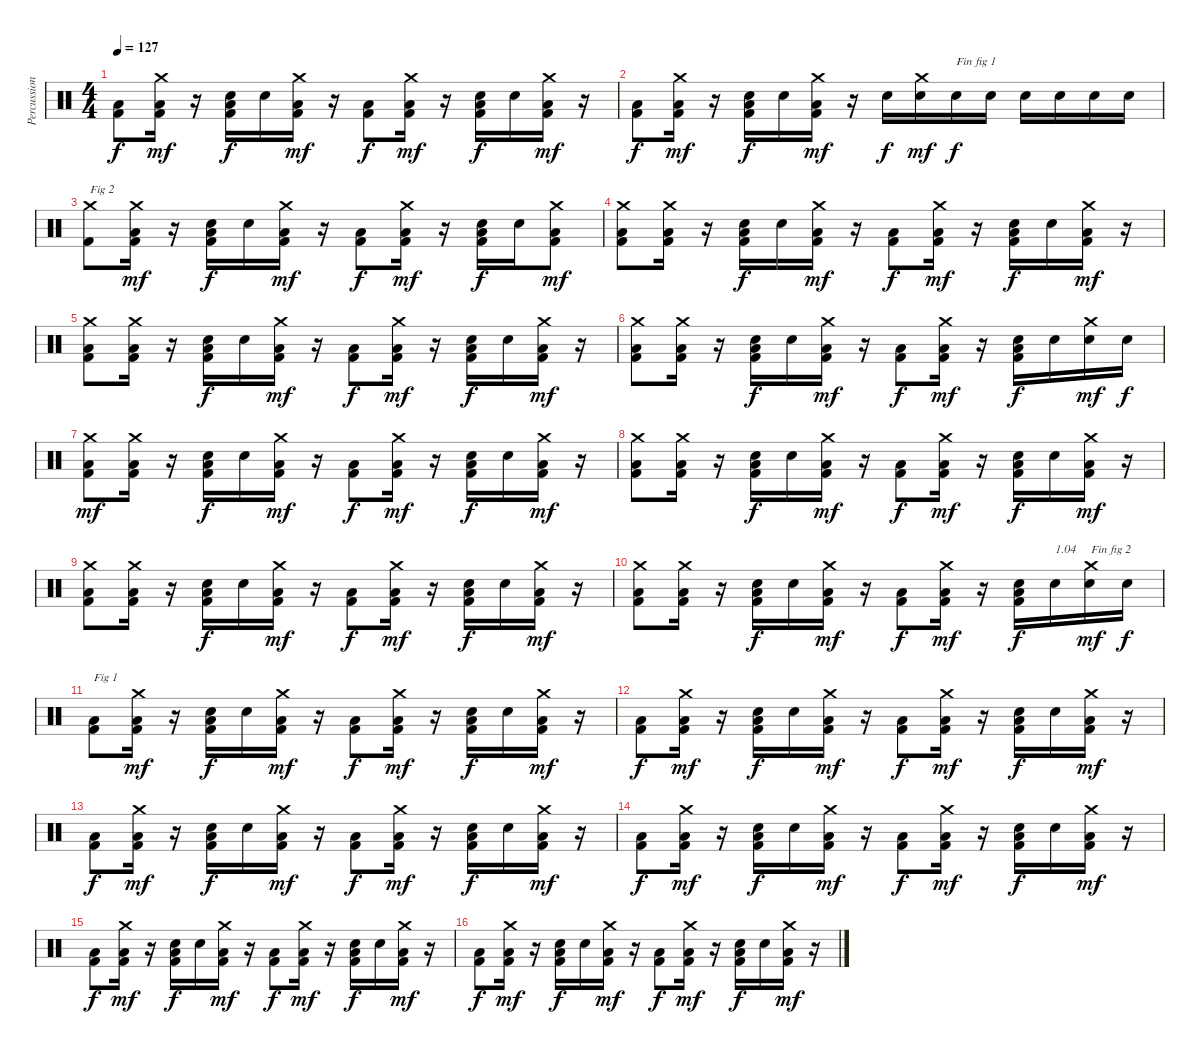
\track ("Percussions" "Percussion") {instrument percussion}
\staff {score}
\articulation defaults
\ts (4 4)
\tempo 127
\clef neutral
\ks c
("Low Floor Tom (hit)" "Kick (hit) 2").8{dy f} ("Low Floor Tom (hit)" "Kick (hit) 2" "Crash medium (hit)").16{dy mf} r.16 ("Low Floor Tom (hit)" "Kick (hit) 2" "Electric Snare (hit)").16{dy f} "Electric Snare (hit)".16 ("Low Floor Tom (hit)" "Kick (hit) 2" "Crash medium (hit)").16{dy mf} r.16 ("Low Floor Tom (hit)" "Kick (hit) 2").8{dy f} ("Low Floor Tom (hit)" "Kick (hit) 2" "Crash medium (hit)").16{dy mf} r.16 ("Low Floor Tom (hit)" "Kick (hit) 2" "Electric Snare (hit)").16{dy f} "Electric Snare (hit)".16 ("Low Floor Tom (hit)" "Kick (hit) 2" "Crash medium (hit)").16{dy mf} r.16 |
("Low Floor Tom (hit)" "Kick (hit) 2").8{dy f} ("Low Floor Tom (hit)" "Kick (hit) 2" "Crash medium (hit)").16{dy mf} r.16 ("Low Floor Tom (hit)" "Kick (hit) 2" "Electric Snare (hit)").16{dy f} "Electric Snare (hit)".16 ("Low Floor Tom (hit)" "Kick (hit) 2" "Crash medium (hit)").16{dy mf} r.16 "Electric Snare (hit)".16{dy f} ("Electric Snare (hit)" "Crash medium (hit)").16{dy mf} "Electric Snare (hit)".16{txt "Fin fig 1" dy f} "Electric Snare (hit)".16 "Electric Snare (hit)".16 "Electric Snare (hit)".16 "Electric Snare (hit)".16 "Electric Snare (hit)".16 |
("Kick (hit) 2" "Crash medium (hit)").8{txt "Fig 2"} ("Low Floor Tom (hit)" "Kick (hit) 2" "Crash medium (hit)").16{dy mf} r.16 ("Low Floor Tom (hit)" "Kick (hit) 2" "Electric Snare (hit)").16{dy f} "Electric Snare (hit)".16 ("Low Floor Tom (hit)" "Kick (hit) 2" "Crash medium (hit)").16{dy mf} r.16 ("Low Floor Tom (hit)" "Kick (hit) 2").8{dy f} ("Low Floor Tom (hit)" "Kick (hit) 2" "Crash medium (hit)").16{dy mf} r.16 ("Low Floor Tom (hit)" "Kick (hit) 2" "Electric Snare (hit)").16{dy f} "Electric Snare (hit)".16 ("Low Floor Tom (hit)" "Kick (hit) 2" "Crash medium (hit)").8{dy mf} |
("Low Floor Tom (hit)" "Kick (hit) 2" "Crash medium (hit)").8 ("Low Floor Tom (hit)" "Kick (hit) 2" "Crash medium (hit)").16 r.16 ("Low Floor Tom (hit)" "Kick (hit) 2" "Electric Snare (hit)").16{dy f} "Electric Snare (hit)".16 ("Low Floor Tom (hit)" "Kick (hit) 2" "Crash medium (hit)").16{dy mf} r.16 ("Low Floor Tom (hit)" "Kick (hit) 2").8{dy f} ("Low Floor Tom (hit)" "Kick (hit) 2" "Crash medium (hit)").16{dy mf} r.16 ("Low Floor Tom (hit)" "Kick (hit) 2" "Electric Snare (hit)").16{dy f} "Electric Snare (hit)".16 ("Low Floor Tom (hit)" "Kick (hit) 2" "Crash medium (hit)").16{dy mf} r.16 |
("Low Floor Tom (hit)" "Kick (hit) 2" "Crash medium (hit)").8 ("Low Floor Tom (hit)" "Kick (hit) 2" "Crash medium (hit)").16 r.16 ("Low Floor Tom (hit)" "Kick (hit) 2" "Electric Snare (hit)").16{dy f} "Electric Snare (hit)".16 ("Low Floor Tom (hit)" "Kick (hit) 2" "Crash medium (hit)").16{dy mf} r.16 ("Low Floor Tom (hit)" "Kick (hit) 2").8{dy f} ("Low Floor Tom (hit)" "Kick (hit) 2" "Crash medium (hit)").16{dy mf} r.16 ("Low Floor Tom (hit)" "Kick (hit) 2" "Electric Snare (hit)").16{dy f} "Electric Snare (hit)".16 ("Low Floor Tom (hit)" "Kick (hit) 2" "Crash medium (hit)").16{dy mf} r.16 |
("Low Floor Tom (hit)" "Kick (hit) 2" "Crash medium (hit)").8 ("Low Floor Tom (hit)" "Kick (hit) 2" "Crash medium (hit)").16 r.16 ("Low Floor Tom (hit)" "Kick (hit) 2" "Electric Snare (hit)").16{dy f} "Electric Snare (hit)".16 ("Low Floor Tom (hit)" "Kick (hit) 2" "Crash medium (hit)").16{dy mf} r.16 ("Low Floor Tom (hit)" "Kick (hit) 2").8{dy f} ("Low Floor Tom (hit)" "Kick (hit) 2" "Crash medium (hit)").16{dy mf} r.16 ("Low Floor Tom (hit)" "Kick (hit) 2" "Electric Snare (hit)").16{dy f} "Electric Snare (hit)".16 ("Electric Snare (hit)" "Crash medium (hit)").16{dy mf} "Electric Snare (hit)".16{dy f} |
("Low Floor Tom (hit)" "Kick (hit) 2" "Crash medium (hit)").8{dy mf} ("Low Floor Tom (hit)" "Kick (hit) 2" "Crash medium (hit)").16 r.16 ("Low Floor Tom (hit)" "Kick (hit) 2" "Electric Snare (hit)").16{dy f} "Electric Snare (hit)".16 ("Low Floor Tom (hit)" "Kick (hit) 2" "Crash medium (hit)").16{dy mf} r.16 ("Low Floor Tom (hit)" "Kick (hit) 2").8{dy f} ("Low Floor Tom (hit)" "Kick (hit) 2" "Crash medium (hit)").16{dy mf} r.16 ("Low Floor Tom (hit)" "Kick (hit) 2" "Electric Snare (hit)").16{dy f} "Electric Snare (hit)".16 ("Low Floor Tom (hit)" "Kick (hit) 2" "Crash medium (hit)").16{dy mf} r.16 |
("Low Floor Tom (hit)" "Kick (hit) 2" "Crash medium (hit)").8 ("Low Floor Tom (hit)" "Kick (hit) 2" "Crash medium (hit)").16 r.16 ("Low Floor Tom (hit)" "Kick (hit) 2" "Electric Snare (hit)").16{dy f} "Electric Snare (hit)".16 ("Low Floor Tom (hit)" "Kick (hit) 2" "Crash medium (hit)").16{dy mf} r.16 ("Low Floor Tom (hit)" "Kick (hit) 2").8{dy f} ("Low Floor Tom (hit)" "Kick (hit) 2" "Crash medium (hit)").16{dy mf} r.16 ("Low Floor Tom (hit)" "Kick (hit) 2" "Electric Snare (hit)").16{dy f} "Electric Snare (hit)".16 ("Low Floor Tom (hit)" "Kick (hit) 2" "Crash medium (hit)").16{dy mf} r.16 |
("Low Floor Tom (hit)" "Kick (hit) 2" "Crash medium (hit)").8 ("Low Floor Tom (hit)" "Kick (hit) 2" "Crash medium (hit)").16 r.16 ("Low Floor Tom (hit)" "Kick (hit) 2" "Electric Snare (hit)").16{dy f} "Electric Snare (hit)".16 ("Low Floor Tom (hit)" "Kick (hit) 2" "Crash medium (hit)").16{dy mf} r.16 ("Low Floor Tom (hit)" "Kick (hit) 2").8{dy f} ("Low Floor Tom (hit)" "Kick (hit) 2" "Crash medium (hit)").16{dy mf} r.16 ("Low Floor Tom (hit)" "Kick (hit) 2" "Electric Snare (hit)").16{dy f} "Electric Snare (hit)".16 ("Low Floor Tom (hit)" "Kick (hit) 2" "Crash medium (hit)").16{dy mf} r.16 |
("Low Floor Tom (hit)" "Kick (hit) 2" "Crash medium (hit)").8 ("Low Floor Tom (hit)" "Kick (hit) 2" "Crash medium (hit)").16 r.16 ("Low Floor Tom (hit)" "Kick (hit) 2" "Electric Snare (hit)").16{dy f} "Electric Snare (hit)".16 ("Low Floor Tom (hit)" "Kick (hit) 2" "Crash medium (hit)").16{dy mf} r.16 ("Low Floor Tom (hit)" "Kick (hit) 2").8{dy f} ("Low Floor Tom (hit)" "Kick (hit) 2" "Crash medium (hit)").16{dy mf} r.16 ("Low Floor Tom (hit)" "Kick (hit) 2" "Electric Snare (hit)").16{dy f} "Electric Snare (hit)".16{txt "1.04"} ("Electric Snare (hit)" "Crash medium (hit)").16{txt "Fin fig 2" dy mf} "Electric Snare (hit)".16{dy f} |
("Low Floor Tom (hit)" "Kick (hit) 2").8{txt "Fig 1"} ("Low Floor Tom (hit)" "Kick (hit) 2" "Crash medium (hit)").16{dy mf} r.16 ("Low Floor Tom (hit)" "Kick (hit) 2" "Electric Snare (hit)").16{dy f} "Electric Snare (hit)".16 ("Low Floor Tom (hit)" "Kick (hit) 2" "Crash medium (hit)").16{dy mf} r.16 ("Low Floor Tom (hit)" "Kick (hit) 2").8{dy f} ("Low Floor Tom (hit)" "Kick (hit) 2" "Crash medium (hit)").16{dy mf} r.16 ("Low Floor Tom (hit)" "Kick (hit) 2" "Electric Snare (hit)").16{dy f} "Electric Snare (hit)".16 ("Low Floor Tom (hit)" "Kick (hit) 2" "Crash medium (hit)").16{dy mf} r.16 |
("Low Floor Tom (hit)" "Kick (hit) 2").8{dy f} ("Low Floor Tom (hit)" "Kick (hit) 2" "Crash medium (hit)").16{dy mf} r.16 ("Low Floor Tom (hit)" "Kick (hit) 2" "Electric Snare (hit)").16{dy f} "Electric Snare (hit)".16 ("Low Floor Tom (hit)" "Kick (hit) 2" "Crash medium (hit)").16{dy mf} r.16 ("Low Floor Tom (hit)" "Kick (hit) 2").8{dy f} ("Low Floor Tom (hit)" "Kick (hit) 2" "Crash medium (hit)").16{dy mf} r.16 ("Low Floor Tom (hit)" "Kick (hit) 2" "Electric Snare (hit)").16{dy f} "Electric Snare (hit)".16 ("Low Floor Tom (hit)" "Kick (hit) 2" "Crash medium (hit)").16{dy mf} r.16 |
("Low Floor Tom (hit)" "Kick (hit) 2").8{dy f} ("Low Floor Tom (hit)" "Kick (hit) 2" "Crash medium (hit)").16{dy mf} r.16 ("Low Floor Tom (hit)" "Kick (hit) 2" "Electric Snare (hit)").16{dy f} "Electric Snare (hit)".16 ("Low Floor Tom (hit)" "Kick (hit) 2" "Crash medium (hit)").16{dy mf} r.16 ("Low Floor Tom (hit)" "Kick (hit) 2").8{dy f} ("Low Floor Tom (hit)" "Kick (hit) 2" "Crash medium (hit)").16{dy mf} r.16 ("Low Floor Tom (hit)" "Kick (hit) 2" "Electric Snare (hit)").16{dy f} "Electric Snare (hit)".16 ("Low Floor Tom (hit)" "Kick (hit) 2" "Crash medium (hit)").16{dy mf} r.16 |
("Low Floor Tom (hit)" "Kick (hit) 2").8{dy f} ("Low Floor Tom (hit)" "Kick (hit) 2" "Crash medium (hit)").16{dy mf} r.16 ("Low Floor Tom (hit)" "Kick (hit) 2" "Electric Snare (hit)").16{dy f} "Electric Snare (hit)".16 ("Low Floor Tom (hit)" "Kick (hit) 2" "Crash medium (hit)").16{dy mf} r.16 ("Low Floor Tom (hit)" "Kick (hit) 2").8{dy f} ("Low Floor Tom (hit)" "Kick (hit) 2" "Crash medium (hit)").16{dy mf} r.16 ("Low Floor Tom (hit)" "Kick (hit) 2" "Electric Snare (hit)").16{dy f} "Electric Snare (hit)".16 ("Low Floor Tom (hit)" "Kick (hit) 2" "Crash medium (hit)").16{dy mf} r.16 |
("Low Floor Tom (hit)" "Kick (hit) 2").8{dy f} ("Low Floor Tom (hit)" "Kick (hit) 2" "Crash medium (hit)").16{dy mf} r.16 ("Low Floor Tom (hit)" "Kick (hit) 2" "Electric Snare (hit)").16{dy f} "Electric Snare (hit)".16 ("Low Floor Tom (hit)" "Kick (hit) 2" "Crash medium (hit)").16{dy mf} r.16 ("Low Floor Tom (hit)" "Kick (hit) 2").8{dy f} ("Low Floor Tom (hit)" "Kick (hit) 2" "Crash medium (hit)").16{dy mf} r.16 ("Low Floor Tom (hit)" "Kick (hit) 2" "Electric Snare (hit)").16{dy f} "Electric Snare (hit)".16 ("Low Floor Tom (hit)" "Kick (hit) 2" "Crash medium (hit)").16{dy mf} r.16 |
("Low Floor Tom (hit)" "Kick (hit) 2").8{dy f} ("Low Floor Tom (hit)" "Kick (hit) 2" "Crash medium (hit)").16{dy mf} r.16 ("Low Floor Tom (hit)" "Kick (hit) 2" "Electric Snare (hit)").16{dy f} "Electric Snare (hit)".16 ("Low Floor Tom (hit)" "Kick (hit) 2" "Crash medium (hit)").16{dy mf} r.16 ("Low Floor Tom (hit)" "Kick (hit) 2").8{dy f} ("Low Floor Tom (hit)" "Kick (hit) 2" "Crash medium (hit)").16{dy mf} r.16 ("Low Floor Tom (hit)" "Kick (hit) 2" "Electric Snare (hit)").16{dy f} "Electric Snare (hit)".16 ("Low Floor Tom (hit)" "Kick (hit) 2" "Crash medium (hit)").16{dy mf} r.16
